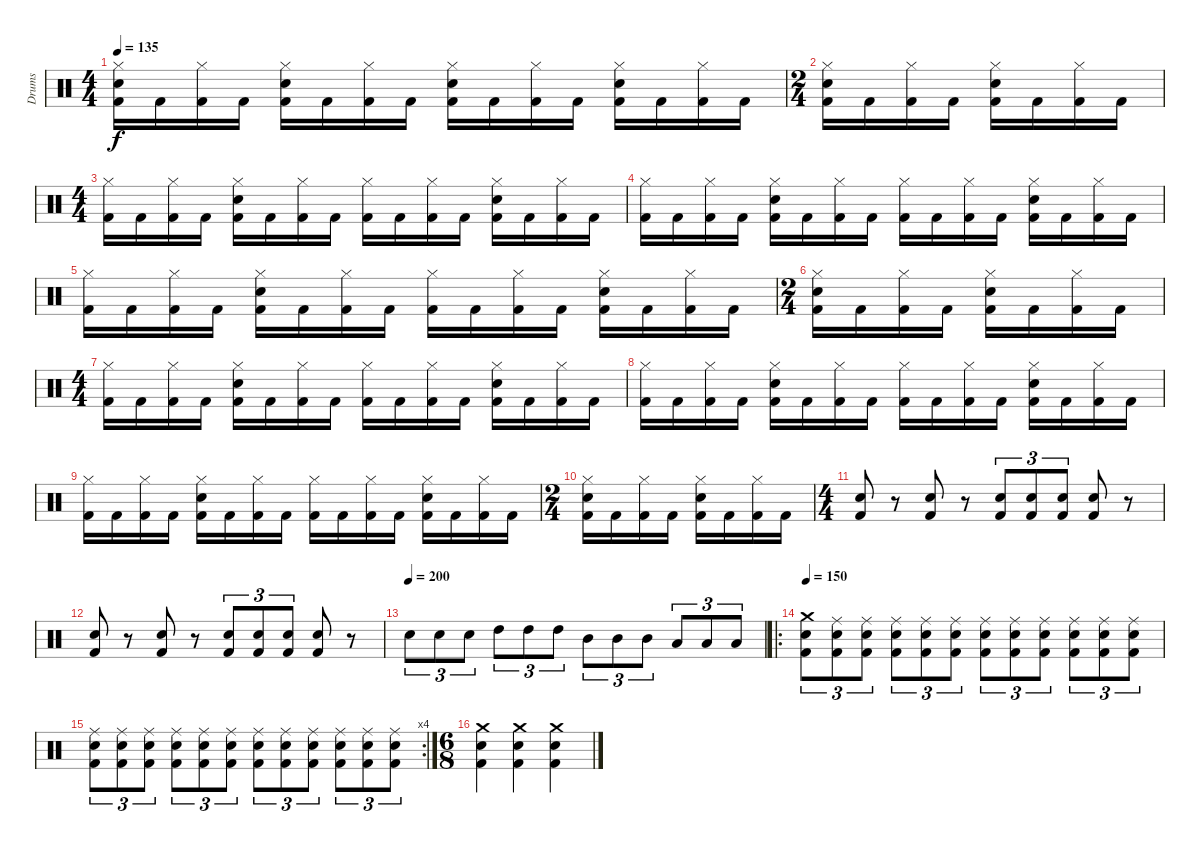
\track ("Drums" "Drums") {instrument percussion}
\staff {score}
\articulation defaults
\ts (4 4)
\tempo 135
\clef neutral
\ks c
("Kick (hit) 2" "Snare (hit) 2" "Hi-Hat (closed)").16{dy f} "Kick (hit) 2".16 ("Kick (hit) 2" "Hi-Hat (closed)").16 "Kick (hit) 2".16 ("Kick (hit) 2" "Snare (hit) 2" "Hi-Hat (closed)").16 "Kick (hit) 2".16 ("Kick (hit) 2" "Hi-Hat (closed)").16 "Kick (hit) 2".16 ("Kick (hit) 2" "Snare (hit) 2" "Hi-Hat (closed)").16 "Kick (hit) 2".16 ("Kick (hit) 2" "Hi-Hat (closed)").16 "Kick (hit) 2".16 ("Kick (hit) 2" "Snare (hit) 2" "Hi-Hat (closed)").16 "Kick (hit) 2".16 ("Kick (hit) 2" "Hi-Hat (closed)").16 "Kick (hit) 2".16 |
\ts (2 4)
("Kick (hit) 2" "Snare (hit) 2" "Hi-Hat (closed)").16 "Kick (hit) 2".16 ("Kick (hit) 2" "Hi-Hat (closed)").16 "Kick (hit) 2".16 ("Kick (hit) 2" "Snare (hit) 2" "Hi-Hat (closed)").16 "Kick (hit) 2".16 ("Kick (hit) 2" "Hi-Hat (closed)").16 "Kick (hit) 2".16 |
\ts (4 4)
("Kick (hit) 2" "Hi-Hat (closed)").16 "Kick (hit) 2".16 ("Kick (hit) 2" "Hi-Hat (closed)").16 "Kick (hit) 2".16 ("Kick (hit) 2" "Snare (hit) 2" "Hi-Hat (closed)").16 "Kick (hit) 2".16 ("Kick (hit) 2" "Hi-Hat (closed)").16 "Kick (hit) 2".16 ("Kick (hit) 2" "Hi-Hat (closed)").16 "Kick (hit) 2".16 ("Kick (hit) 2" "Hi-Hat (closed)").16 "Kick (hit) 2".16 ("Kick (hit) 2" "Snare (hit) 2" "Hi-Hat (closed)").16 "Kick (hit) 2".16 ("Kick (hit) 2" "Hi-Hat (closed)").16 "Kick (hit) 2".16 |
("Kick (hit) 2" "Hi-Hat (closed)").16 "Kick (hit) 2".16 ("Kick (hit) 2" "Hi-Hat (closed)").16 "Kick (hit) 2".16 ("Kick (hit) 2" "Snare (hit) 2" "Hi-Hat (closed)").16 "Kick (hit) 2".16 ("Kick (hit) 2" "Hi-Hat (closed)").16 "Kick (hit) 2".16 ("Kick (hit) 2" "Hi-Hat (closed)").16 "Kick (hit) 2".16 ("Kick (hit) 2" "Hi-Hat (closed)").16 "Kick (hit) 2".16 ("Kick (hit) 2" "Snare (hit) 2" "Hi-Hat (closed)").16 "Kick (hit) 2".16 ("Kick (hit) 2" "Hi-Hat (closed)").16 "Kick (hit) 2".16 |
("Kick (hit) 2" "Hi-Hat (closed)").16 "Kick (hit) 2".16 ("Kick (hit) 2" "Hi-Hat (closed)").16 "Kick (hit) 2".16 ("Kick (hit) 2" "Snare (hit) 2" "Hi-Hat (closed)").16 "Kick (hit) 2".16 ("Kick (hit) 2" "Hi-Hat (closed)").16 "Kick (hit) 2".16 ("Kick (hit) 2" "Hi-Hat (closed)").16 "Kick (hit) 2".16 ("Kick (hit) 2" "Hi-Hat (closed)").16 "Kick (hit) 2".16 ("Kick (hit) 2" "Snare (hit) 2" "Hi-Hat (closed)").16 "Kick (hit) 2".16 ("Kick (hit) 2" "Hi-Hat (closed)").16 "Kick (hit) 2".16 |
\ts (2 4)
("Kick (hit) 2" "Snare (hit) 2" "Hi-Hat (closed)").16 "Kick (hit) 2".16 ("Kick (hit) 2" "Hi-Hat (closed)").16 "Kick (hit) 2".16 ("Kick (hit) 2" "Snare (hit) 2" "Hi-Hat (closed)").16 "Kick (hit) 2".16 ("Kick (hit) 2" "Hi-Hat (closed)").16 "Kick (hit) 2".16 |
\ts (4 4)
("Kick (hit) 2" "Hi-Hat (closed)").16 "Kick (hit) 2".16 ("Kick (hit) 2" "Hi-Hat (closed)").16 "Kick (hit) 2".16 ("Kick (hit) 2" "Snare (hit) 2" "Hi-Hat (closed)").16 "Kick (hit) 2".16 ("Kick (hit) 2" "Hi-Hat (closed)").16 "Kick (hit) 2".16 ("Kick (hit) 2" "Hi-Hat (closed)").16 "Kick (hit) 2".16 ("Kick (hit) 2" "Hi-Hat (closed)").16 "Kick (hit) 2".16 ("Kick (hit) 2" "Snare (hit) 2" "Hi-Hat (closed)").16 "Kick (hit) 2".16 ("Kick (hit) 2" "Hi-Hat (closed)").16 "Kick (hit) 2".16 |
("Kick (hit) 2" "Hi-Hat (closed)").16 "Kick (hit) 2".16 ("Kick (hit) 2" "Hi-Hat (closed)").16 "Kick (hit) 2".16 ("Kick (hit) 2" "Snare (hit) 2" "Hi-Hat (closed)").16 "Kick (hit) 2".16 ("Kick (hit) 2" "Hi-Hat (closed)").16 "Kick (hit) 2".16 ("Kick (hit) 2" "Hi-Hat (closed)").16 "Kick (hit) 2".16 ("Kick (hit) 2" "Hi-Hat (closed)").16 "Kick (hit) 2".16 ("Kick (hit) 2" "Snare (hit) 2" "Hi-Hat (closed)").16 "Kick (hit) 2".16 ("Kick (hit) 2" "Hi-Hat (closed)").16 "Kick (hit) 2".16 |
("Kick (hit) 2" "Hi-Hat (closed)").16 "Kick (hit) 2".16 ("Kick (hit) 2" "Hi-Hat (closed)").16 "Kick (hit) 2".16 ("Kick (hit) 2" "Snare (hit) 2" "Hi-Hat (closed)").16 "Kick (hit) 2".16 ("Kick (hit) 2" "Hi-Hat (closed)").16 "Kick (hit) 2".16 ("Kick (hit) 2" "Hi-Hat (closed)").16 "Kick (hit) 2".16 ("Kick (hit) 2" "Hi-Hat (closed)").16 "Kick (hit) 2".16 ("Kick (hit) 2" "Snare (hit) 2" "Hi-Hat (closed)").16 "Kick (hit) 2".16 ("Kick (hit) 2" "Hi-Hat (closed)").16 "Kick (hit) 2".16 |
\ts (2 4)
("Kick (hit) 2" "Snare (hit) 2" "Hi-Hat (closed)").16 "Kick (hit) 2".16 ("Kick (hit) 2" "Hi-Hat (closed)").16 "Kick (hit) 2".16 ("Kick (hit) 2" "Snare (hit) 2" "Hi-Hat (closed)").16 "Kick (hit) 2".16 ("Kick (hit) 2" "Hi-Hat (closed)").16 "Kick (hit) 2".16 |
\ts (4 4)
("Kick (hit) 2" "Snare (hit) 2").8 r.8 ("Kick (hit) 2" "Snare (hit) 2").8 r.8 ("Kick (hit) 2" "Snare (hit) 2").8{tu (3 2)} ("Kick (hit) 2" "Snare (hit) 2").8{tu (3 2)} ("Kick (hit) 2" "Snare (hit) 2").8{tu (3 2)} ("Kick (hit) 2" "Snare (hit) 2").8 r.8 |
("Kick (hit) 2" "Snare (hit) 2").8 r.8 ("Kick (hit) 2" "Snare (hit) 2").8 r.8 ("Kick (hit) 2" "Snare (hit) 2").8{tu (3 2)} ("Kick (hit) 2" "Snare (hit) 2").8{tu (3 2)} ("Kick (hit) 2" "Snare (hit) 2").8{tu (3 2)} ("Kick (hit) 2" "Snare (hit) 2").8 r.8 |
\tempo (200)
"Snare (hit) 2".8{tu (3 2)} "Snare (hit) 2".8{tu (3 2)} "Snare (hit) 2".8{tu (3 2)} "High Tom (hit)".8{tu (3 2)} "High Tom (hit)".8{tu (3 2)} "High Tom (hit)".8{tu (3 2)} "Mid Tom (hit)".8{tu (3 2)} "Mid Tom (hit)".8{tu (3 2)} "Mid Tom (hit)".8{tu (3 2)} "Low Tom (hit)".8{tu (3 2)} "Low Tom (hit)".8{tu (3 2)} "Low Tom (hit)".8{tu (3 2)} |
\ro
\tempo 150
("Kick (hit) 2" "Snare (hit) 2" "Crash medium (hit)").8{tu (3 2)} ("Kick (hit) 2" "Snare (hit) 2" "Ride (middle)").8{tu (3 2)} ("Kick (hit) 2" "Snare (hit) 2" "Ride (middle)").8{tu (3 2)} ("Kick (hit) 2" "Snare (hit) 2" "Ride (middle)").8{tu (3 2)} ("Kick (hit) 2" "Snare (hit) 2" "Ride (middle)").8{tu (3 2)} ("Kick (hit) 2" "Snare (hit) 2" "Ride (middle)").8{tu (3 2)} ("Kick (hit) 2" "Snare (hit) 2" "Ride (middle)").8{tu (3 2)} ("Kick (hit) 2" "Snare (hit) 2" "Ride (middle)").8{tu (3 2)} ("Kick (hit) 2" "Snare (hit) 2" "Ride (middle)").8{tu (3 2)} ("Kick (hit) 2" "Snare (hit) 2" "Ride (middle)").8{tu (3 2)} ("Kick (hit) 2" "Snare (hit) 2" "Ride (middle)").8{tu (3 2)} ("Kick (hit) 2" "Snare (hit) 2" "Ride (middle)").8{tu (3 2)} |
\rc 4
("Kick (hit) 2" "Snare (hit) 2" "Ride (middle)").8{tu (3 2)} ("Kick (hit) 2" "Snare (hit) 2" "Ride (middle)").8{tu (3 2)} ("Kick (hit) 2" "Snare (hit) 2" "Ride (middle)").8{tu (3 2)} ("Kick (hit) 2" "Snare (hit) 2" "Ride (middle)").8{tu (3 2)} ("Kick (hit) 2" "Snare (hit) 2" "Ride (middle)").8{tu (3 2)} ("Kick (hit) 2" "Snare (hit) 2" "Ride (middle)").8{tu (3 2)} ("Kick (hit) 2" "Snare (hit) 2" "Ride (middle)").8{tu (3 2)} ("Kick (hit) 2" "Snare (hit) 2" "Ride (middle)").8{tu (3 2)} ("Snare (hit) 2" "Kick (hit) 2" "Ride (middle)").8{tu (3 2)} ("Snare (hit) 2" "Kick (hit) 2" "Ride (middle)").8{tu (3 2)} ("Snare (hit) 2" "Kick (hit) 2" "Ride (middle)").8{tu (3 2)} ("Snare (hit) 2" "Kick (hit) 2" "Ride (middle)").8{tu (3 2)} |
\ts (6 8)
("Kick (hit) 2" "Snare (hit) 2" "Crash medium (hit)").4 ("Kick (hit) 2" "Snare (hit) 2" "Crash medium (hit)").4 ("Kick (hit) 2" "Snare (hit) 2" "Crash medium (hit)").4
